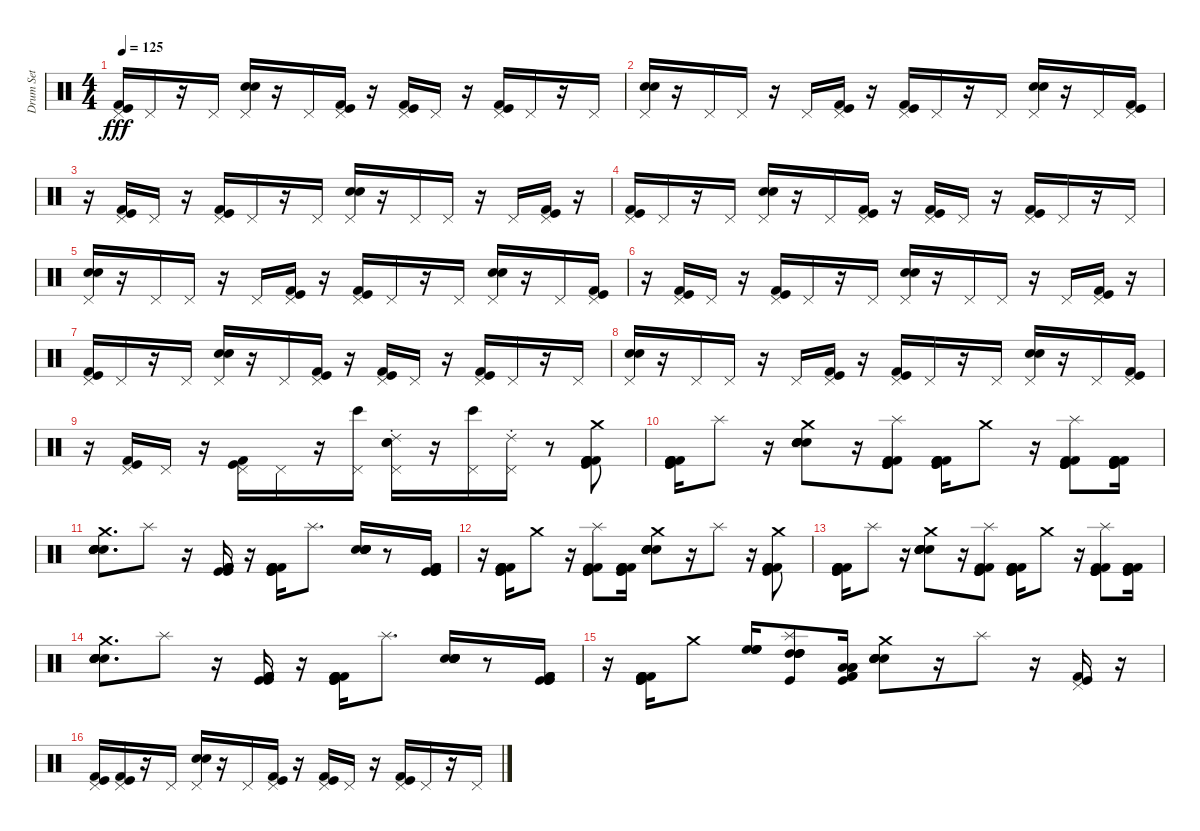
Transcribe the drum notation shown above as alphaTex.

\track ("Drum Set" "Drum Set") {instrument percussion}
\staff {score}
\articulation defaults
\ts (4 4)
\tempo 125
\clef neutral
\ks c
("Kick (hit)" "Kick (hit) 2" "Pedal Hi-Hat (hit)").16{dy fff} "Pedal Hi-Hat (hit)".16 r.16 "Pedal Hi-Hat (hit)".16 ("Electric Snare (hit)" "Snare (hit) 2" "Pedal Hi-Hat (hit)").16 r.16 "Pedal Hi-Hat (hit)".16 ("Kick (hit)" "Kick (hit) 2" "Pedal Hi-Hat (hit)").16 r.16 ("Kick (hit) 2" "Kick (hit)" "Pedal Hi-Hat (hit)").16 "Pedal Hi-Hat (hit)".16 r.16 ("Kick (hit)" "Kick (hit) 2" "Pedal Hi-Hat (hit)").16 "Pedal Hi-Hat (hit)".16 r.16 "Pedal Hi-Hat (hit)".16 |
("Snare (hit) 2" "Electric Snare (hit)" "Pedal Hi-Hat (hit)").16 r.16 "Pedal Hi-Hat (hit)".16 "Pedal Hi-Hat (hit)".16 r.16 "Pedal Hi-Hat (hit)".16 ("Pedal Hi-Hat (hit)" "Kick (hit) 2" "Kick (hit)").16 r.16 ("Kick (hit)" "Kick (hit) 2" "Pedal Hi-Hat (hit)").16 "Pedal Hi-Hat (hit)".16 r.16 "Pedal Hi-Hat (hit)".16 ("Electric Snare (hit)" "Snare (hit) 2" "Pedal Hi-Hat (hit)").16 r.16 "Pedal Hi-Hat (hit)".16 ("Kick (hit)" "Kick (hit) 2" "Pedal Hi-Hat (hit)").16 |
r.16 ("Kick (hit) 2" "Kick (hit)" "Pedal Hi-Hat (hit)").16 "Pedal Hi-Hat (hit)".16 r.16 ("Kick (hit)" "Kick (hit) 2" "Pedal Hi-Hat (hit)").16 "Pedal Hi-Hat (hit)".16 r.16 "Pedal Hi-Hat (hit)".16 ("Snare (hit) 2" "Electric Snare (hit)" "Pedal Hi-Hat (hit)").16 r.16 "Pedal Hi-Hat (hit)".16 "Pedal Hi-Hat (hit)".16 r.16 "Pedal Hi-Hat (hit)".16 ("Pedal Hi-Hat (hit)" "Kick (hit) 2" "Kick (hit)").16 r.16 |
("Kick (hit)" "Kick (hit) 2" "Pedal Hi-Hat (hit)").16 "Pedal Hi-Hat (hit)".16 r.16 "Pedal Hi-Hat (hit)".16 ("Electric Snare (hit)" "Snare (hit) 2" "Pedal Hi-Hat (hit)").16 r.16 "Pedal Hi-Hat (hit)".16 ("Kick (hit)" "Kick (hit) 2" "Pedal Hi-Hat (hit)").16 r.16 ("Kick (hit) 2" "Kick (hit)" "Pedal Hi-Hat (hit)").16 "Pedal Hi-Hat (hit)".16 r.16 ("Kick (hit)" "Kick (hit) 2" "Pedal Hi-Hat (hit)").16 "Pedal Hi-Hat (hit)".16 r.16 "Pedal Hi-Hat (hit)".16 |
("Snare (hit) 2" "Electric Snare (hit)" "Pedal Hi-Hat (hit)").16 r.16 "Pedal Hi-Hat (hit)".16 "Pedal Hi-Hat (hit)".16 r.16 "Pedal Hi-Hat (hit)".16 ("Pedal Hi-Hat (hit)" "Kick (hit) 2" "Kick (hit)").16 r.16 ("Kick (hit)" "Kick (hit) 2" "Pedal Hi-Hat (hit)").16 "Pedal Hi-Hat (hit)".16 r.16 "Pedal Hi-Hat (hit)".16 ("Electric Snare (hit)" "Snare (hit) 2" "Pedal Hi-Hat (hit)").16 r.16 "Pedal Hi-Hat (hit)".16 ("Kick (hit)" "Kick (hit) 2" "Pedal Hi-Hat (hit)").16 |
r.16 ("Kick (hit) 2" "Kick (hit)" "Pedal Hi-Hat (hit)").16 "Pedal Hi-Hat (hit)".16 r.16 ("Kick (hit)" "Kick (hit) 2" "Pedal Hi-Hat (hit)").16 "Pedal Hi-Hat (hit)".16 r.16 "Pedal Hi-Hat (hit)".16 ("Snare (hit) 2" "Electric Snare (hit)" "Pedal Hi-Hat (hit)").16 r.16 "Pedal Hi-Hat (hit)".16 "Pedal Hi-Hat (hit)".16 r.16 "Pedal Hi-Hat (hit)".16 ("Pedal Hi-Hat (hit)" "Kick (hit) 2" "Kick (hit)").16 r.16 |
("Kick (hit)" "Kick (hit) 2" "Pedal Hi-Hat (hit)").16 "Pedal Hi-Hat (hit)".16 r.16 "Pedal Hi-Hat (hit)".16 ("Electric Snare (hit)" "Snare (hit) 2" "Pedal Hi-Hat (hit)").16 r.16 "Pedal Hi-Hat (hit)".16 ("Kick (hit)" "Kick (hit) 2" "Pedal Hi-Hat (hit)").16 r.16 ("Kick (hit) 2" "Kick (hit)" "Pedal Hi-Hat (hit)").16 "Pedal Hi-Hat (hit)".16 r.16 ("Kick (hit)" "Kick (hit) 2" "Pedal Hi-Hat (hit)").16 "Pedal Hi-Hat (hit)".16 r.16 "Pedal Hi-Hat (hit)".16 |
("Snare (hit) 2" "Electric Snare (hit)" "Pedal Hi-Hat (hit)").16 r.16 "Pedal Hi-Hat (hit)".16 "Pedal Hi-Hat (hit)".16 r.16 "Pedal Hi-Hat (hit)".16 ("Pedal Hi-Hat (hit)" "Kick (hit) 2" "Kick (hit)").16 r.16 ("Kick (hit)" "Kick (hit) 2" "Pedal Hi-Hat (hit)").16 "Pedal Hi-Hat (hit)".16 r.16 "Pedal Hi-Hat (hit)".16 ("Electric Snare (hit)" "Snare (hit) 2" "Pedal Hi-Hat (hit)").16 r.16 "Pedal Hi-Hat (hit)".16 ("Kick (hit)" "Kick (hit) 2" "Pedal Hi-Hat (hit)").16 |
r.16 ("Kick (hit) 2" "Kick (hit)" "Pedal Hi-Hat (hit)").16 "Pedal Hi-Hat (hit)".16 r.16 ("Kick (hit)" "Kick (hit) 2" "Pedal Hi-Hat (hit)").16 "Pedal Hi-Hat (hit)".16 r.16 ("Bongo High (hit)" "Pedal Hi-Hat (hit)").16 ("Ride (choke) 2" "Snare (hit) 2" "Electric Snare (hit)" "Pedal Hi-Hat (hit)").16 r.16 ("Bongo High (hit)" "Pedal Hi-Hat (hit)").16 ("Ride (choke) 2" "Pedal Hi-Hat (hit)").16 r.8 ("Crash medium (hit)" "Kick (hit) 2" "Kick (hit)" "Kick (hit) 2" "Kick (hit) 2" "Kick (hit) 2").8 |
("Kick (hit) 2" "Kick (hit)" "Kick (hit) 2" "Kick (hit) 2" "Kick (hit) 2" "Kick (hit)").16 "Splash (hit)".8 r.16 ("Crash medium (hit)" "Snare (hit) 2" "Electric Snare (hit)" "Electric Snare (hit)" "Electric Snare (hit)" "Electric Snare (hit)").8 r.16 ("Splash (hit)" "Kick (hit)" "Kick (hit)" "Kick (hit)" "Kick (hit) 2" "Kick (hit) 2").8 ("Kick (hit)" "Kick (hit) 2" "Kick (hit) 2" "Kick (hit) 2" "Kick (hit) 2" "Kick (hit)").16 "Crash medium (hit)".8 r.16 ("Splash (hit)" "Kick (hit)" "Kick (hit)" "Kick (hit)" "Kick (hit) 2" "Kick (hit) 2").8 ("Kick (hit)" "Kick (hit) 2" "Kick (hit) 2" "Kick (hit) 2" "Kick (hit) 2" "Kick (hit)").16 |
("Crash medium (hit)" "Electric Snare (hit)" "Electric Snare (hit)" "Snare (hit) 2" "Snare (hit) 2" "Snare (hit) 2").8{d} "Splash (hit)".8 r.16 ("Kick (hit) 2" "Kick (hit)" "Kick (hit) 2" "Kick (hit) 2" "Kick (hit) 2" "Kick (hit)").16 r.16 ("Kick (hit) 2" "Kick (hit)" "Kick (hit) 2" "Kick (hit) 2" "Kick (hit) 2" "Kick (hit)").16 "Splash (hit)".8{d} ("Snare (hit) 2" "Electric Snare (hit)" "Electric Snare (hit)" "Electric Snare (hit)" "Electric Snare (hit)" "Snare (hit) 2").16 r.8 ("Kick (hit)" "Kick (hit)" "Kick (hit)" "Kick (hit) 2" "Kick (hit) 2" "Kick (hit) 2").16 |
r.16 ("Kick (hit)" "Kick (hit) 2" "Kick (hit) 2" "Kick (hit) 2" "Kick (hit) 2" "Kick (hit)").16 "Crash medium (hit)".8 r.16 ("Splash (hit)" "Kick (hit)" "Kick (hit)" "Kick (hit)" "Kick (hit) 2" "Kick (hit) 2").8 ("Kick (hit)" "Kick (hit) 2" "Kick (hit) 2" "Kick (hit) 2" "Kick (hit) 2" "Kick (hit)").16 ("Crash medium (hit)" "Electric Snare (hit)" "Electric Snare (hit)" "Snare (hit) 2" "Snare (hit) 2" "Snare (hit) 2").8 r.16 "Splash (hit)".8 r.16 ("Crash medium (hit)" "Kick (hit) 2" "Kick (hit)" "Kick (hit) 2" "Kick (hit) 2" "Kick (hit) 2").8 |
("Kick (hit) 2" "Kick (hit)" "Kick (hit) 2" "Kick (hit) 2" "Kick (hit) 2" "Kick (hit)").16 "Splash (hit)".8 r.16 ("Crash medium (hit)" "Snare (hit) 2" "Electric Snare (hit)" "Electric Snare (hit)" "Electric Snare (hit)" "Electric Snare (hit)").8 r.16 ("Splash (hit)" "Kick (hit)" "Kick (hit)" "Kick (hit)" "Kick (hit) 2" "Kick (hit) 2").8 ("Kick (hit)" "Kick (hit) 2" "Kick (hit) 2" "Kick (hit) 2" "Kick (hit) 2" "Kick (hit)").16 "Crash medium (hit)".8 r.16 ("Splash (hit)" "Kick (hit)" "Kick (hit)" "Kick (hit)" "Kick (hit) 2" "Kick (hit) 2").8 ("Kick (hit)" "Kick (hit) 2" "Kick (hit) 2" "Kick (hit) 2" "Kick (hit) 2" "Kick (hit)").16 |
("Crash medium (hit)" "Electric Snare (hit)" "Electric Snare (hit)" "Snare (hit) 2" "Snare (hit) 2" "Snare (hit) 2").8{d} "Splash (hit)".8 r.16 ("Kick (hit) 2" "Kick (hit)" "Kick (hit) 2" "Kick (hit) 2" "Kick (hit) 2" "Kick (hit)").16 r.16 ("Kick (hit) 2" "Kick (hit)" "Kick (hit) 2" "Kick (hit) 2" "Kick (hit) 2" "Kick (hit)").16 "Splash (hit)".8{d} ("Snare (hit) 2" "Electric Snare (hit)" "Electric Snare (hit)" "Electric Snare (hit)" "Electric Snare (hit)" "Snare (hit) 2").16 r.8 ("Kick (hit)" "Kick (hit)" "Kick (hit)" "Kick (hit) 2" "Kick (hit) 2" "Kick (hit) 2").16 |
r.16 ("Kick (hit)" "Kick (hit) 2" "Kick (hit) 2" "Kick (hit) 2" "Kick (hit) 2" "Kick (hit)").16 "Crash medium (hit)".8 ("High Floor Tom (hit)" "High Floor Tom (hit)" "High Floor Tom (hit)" "High Floor Tom (hit)").16 ("Splash (hit)" "High Tom (hit)" "High Tom (hit)" "High Tom (hit)" "High Tom (hit)" "Kick (hit)").8 ("Low Tom (hit)" "Low Tom (hit)" "Low Tom (hit)" "Kick (hit)" "Kick (hit) 2" "Kick (hit) 2").16 ("Crash medium (hit)" "Electric Snare (hit)" "Electric Snare (hit)" "Snare (hit) 2" "Snare (hit) 2" "Snare (hit) 2").8 r.16 "Splash (hit)".8 r.16 ("Pedal Hi-Hat (hit)" "Kick (hit) 2" "Kick (hit)").16 r.16 |
("Kick (hit)" "Kick (hit) 2" "Pedal Hi-Hat (hit)").16 ("Kick (hit) 2" "Kick (hit)" "Pedal Hi-Hat (hit)").16 r.16 "Pedal Hi-Hat (hit)".16 ("Electric Snare (hit)" "Snare (hit) 2" "Pedal Hi-Hat (hit)").16 r.16 "Pedal Hi-Hat (hit)".16 ("Kick (hit)" "Kick (hit) 2" "Pedal Hi-Hat (hit)").16 r.16 ("Kick (hit)" "Kick (hit) 2" "Pedal Hi-Hat (hit)").16 "Pedal Hi-Hat (hit)".16 r.16 ("Kick (hit)" "Kick (hit) 2" "Pedal Hi-Hat (hit)").16 "Pedal Hi-Hat (hit)".16 r.16 "Pedal Hi-Hat (hit)".16
